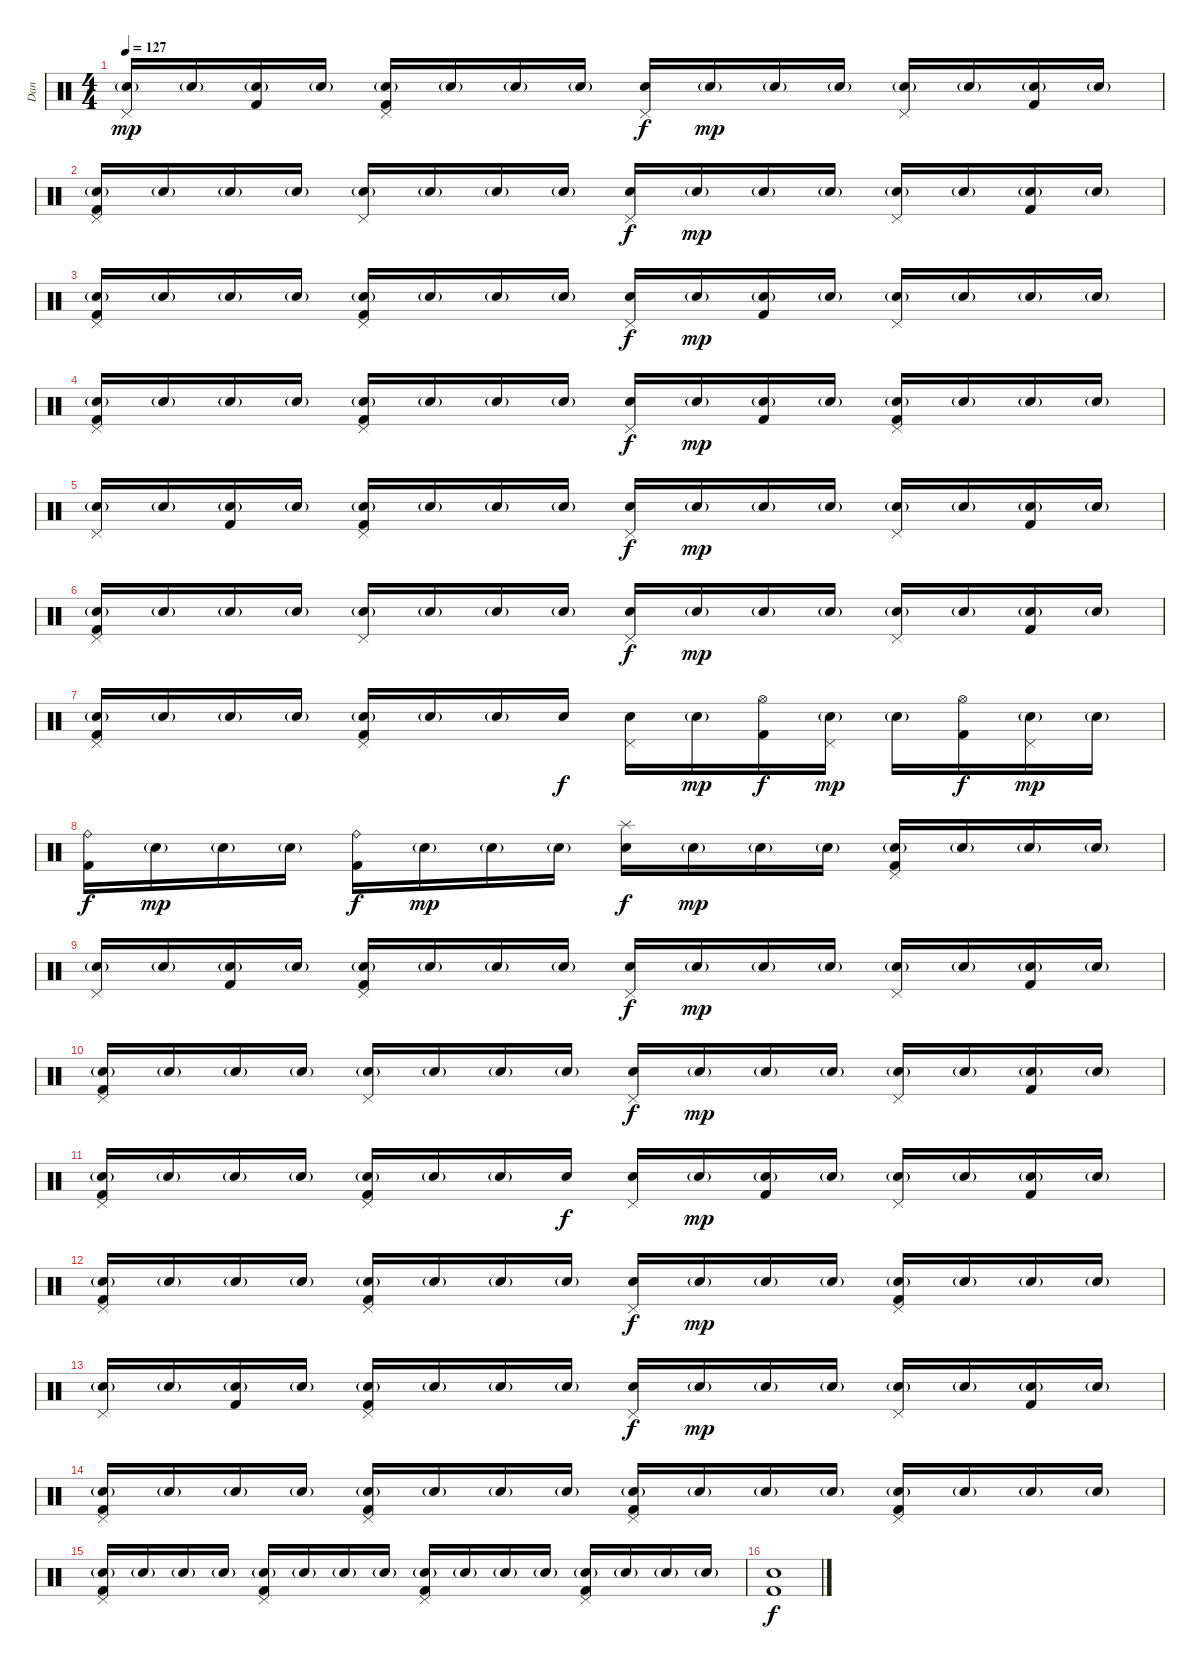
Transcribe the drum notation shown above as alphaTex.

\track ("Dan" "Dan") {instrument percussion}
\staff {score}
\articulation defaults
\ts (4 4)
\tempo 127
\clef neutral
\ks c
("Pedal Hi-Hat (hit)" "Electric Snare (hit)"{g}).16{dy mp} "Electric Snare (hit)"{g}.16 ("Electric Snare (hit)"{g} "Kick (hit) 2").16 "Electric Snare (hit)"{g}.16 ("Pedal Hi-Hat (hit)" "Electric Snare (hit)"{g} "Kick (hit) 2").16 "Electric Snare (hit)"{g}.16 "Electric Snare (hit)"{g}.16 "Electric Snare (hit)"{g}.16 ("Pedal Hi-Hat (hit)" "Electric Snare (hit)").16{dy f} "Electric Snare (hit)"{g}.16{dy mp} "Electric Snare (hit)"{g}.16 "Electric Snare (hit)"{g}.16 ("Pedal Hi-Hat (hit)" "Electric Snare (hit)"{g}).16 "Electric Snare (hit)"{g}.16 ("Electric Snare (hit)"{g} "Kick (hit) 2").16 "Electric Snare (hit)"{g}.16 |
("Pedal Hi-Hat (hit)" "Electric Snare (hit)"{g} "Kick (hit) 2").16 "Electric Snare (hit)"{g}.16 "Electric Snare (hit)"{g}.16 "Electric Snare (hit)"{g}.16 ("Pedal Hi-Hat (hit)" "Electric Snare (hit)"{g}).16 "Electric Snare (hit)"{g}.16 "Electric Snare (hit)"{g}.16 "Electric Snare (hit)"{g}.16 ("Pedal Hi-Hat (hit)" "Electric Snare (hit)").16{dy f} "Electric Snare (hit)"{g}.16{dy mp} "Electric Snare (hit)"{g}.16 "Electric Snare (hit)"{g}.16 ("Pedal Hi-Hat (hit)" "Electric Snare (hit)"{g}).16 "Electric Snare (hit)"{g}.16 ("Electric Snare (hit)"{g} "Kick (hit) 2").16 "Electric Snare (hit)"{g}.16 |
("Pedal Hi-Hat (hit)" "Electric Snare (hit)"{g} "Kick (hit) 2").16 "Electric Snare (hit)"{g}.16 "Electric Snare (hit)"{g}.16 "Electric Snare (hit)"{g}.16 ("Pedal Hi-Hat (hit)" "Electric Snare (hit)"{g} "Kick (hit) 2").16 "Electric Snare (hit)"{g}.16 "Electric Snare (hit)"{g}.16 "Electric Snare (hit)"{g}.16 ("Pedal Hi-Hat (hit)" "Electric Snare (hit)").16{dy f} "Electric Snare (hit)"{g}.16{dy mp} ("Electric Snare (hit)"{g} "Kick (hit) 2").16 "Electric Snare (hit)"{g}.16 ("Pedal Hi-Hat (hit)" "Electric Snare (hit)"{g}).16 "Electric Snare (hit)"{g}.16 "Electric Snare (hit)"{g}.16 "Electric Snare (hit)"{g}.16 |
("Pedal Hi-Hat (hit)" "Electric Snare (hit)"{g} "Kick (hit) 2").16 "Electric Snare (hit)"{g}.16 "Electric Snare (hit)"{g}.16 "Electric Snare (hit)"{g}.16 ("Pedal Hi-Hat (hit)" "Electric Snare (hit)"{g} "Kick (hit) 2").16 "Electric Snare (hit)"{g}.16 "Electric Snare (hit)"{g}.16 "Electric Snare (hit)"{g}.16 ("Pedal Hi-Hat (hit)" "Electric Snare (hit)").16{dy f} "Electric Snare (hit)"{g}.16{dy mp} ("Electric Snare (hit)"{g} "Kick (hit) 2").16 "Electric Snare (hit)"{g}.16 ("Pedal Hi-Hat (hit)" "Electric Snare (hit)"{g} "Kick (hit) 2").16 "Electric Snare (hit)"{g}.16 "Electric Snare (hit)"{g}.16 "Electric Snare (hit)"{g}.16 |
("Pedal Hi-Hat (hit)" "Electric Snare (hit)"{g}).16 "Electric Snare (hit)"{g}.16 ("Electric Snare (hit)"{g} "Kick (hit) 2").16 "Electric Snare (hit)"{g}.16 ("Pedal Hi-Hat (hit)" "Electric Snare (hit)"{g} "Kick (hit) 2").16 "Electric Snare (hit)"{g}.16 "Electric Snare (hit)"{g}.16 "Electric Snare (hit)"{g}.16 ("Pedal Hi-Hat (hit)" "Electric Snare (hit)").16{dy f} "Electric Snare (hit)"{g}.16{dy mp} "Electric Snare (hit)"{g}.16 "Electric Snare (hit)"{g}.16 ("Pedal Hi-Hat (hit)" "Electric Snare (hit)"{g}).16 "Electric Snare (hit)"{g}.16 ("Electric Snare (hit)"{g} "Kick (hit) 2").16 "Electric Snare (hit)"{g}.16 |
("Pedal Hi-Hat (hit)" "Electric Snare (hit)"{g} "Kick (hit) 2").16 "Electric Snare (hit)"{g}.16 "Electric Snare (hit)"{g}.16 "Electric Snare (hit)"{g}.16 ("Pedal Hi-Hat (hit)" "Electric Snare (hit)"{g}).16 "Electric Snare (hit)"{g}.16 "Electric Snare (hit)"{g}.16 "Electric Snare (hit)"{g}.16 ("Pedal Hi-Hat (hit)" "Electric Snare (hit)").16{dy f} "Electric Snare (hit)"{g}.16{dy mp} "Electric Snare (hit)"{g}.16 "Electric Snare (hit)"{g}.16 ("Pedal Hi-Hat (hit)" "Electric Snare (hit)"{g}).16 "Electric Snare (hit)"{g}.16 ("Electric Snare (hit)"{g} "Kick (hit) 2").16 "Electric Snare (hit)"{g}.16 |
("Pedal Hi-Hat (hit)" "Electric Snare (hit)"{g} "Kick (hit) 2").16 "Electric Snare (hit)"{g}.16 "Electric Snare (hit)"{g}.16 "Electric Snare (hit)"{g}.16 ("Pedal Hi-Hat (hit)" "Electric Snare (hit)"{g} "Kick (hit) 2").16 "Electric Snare (hit)"{g}.16 "Electric Snare (hit)"{g}.16 "Electric Snare (hit)".16{dy f} ("Pedal Hi-Hat (hit)" "Electric Snare (hit)").16 "Electric Snare (hit)"{g}.16{dy mp} ("Hi-Hat (open)" "Kick (hit) 2").16{dy f} ("Pedal Hi-Hat (hit)" "Electric Snare (hit)"{g}).16{dy mp} "Electric Snare (hit)"{g}.16 ("Hi-Hat (open)" "Kick (hit) 2").16{dy f} ("Pedal Hi-Hat (hit)" "Electric Snare (hit)"{g}).16{dy mp} "Electric Snare (hit)"{g}.16 |
("Ride (bell)" "Kick (hit) 2").16{dy f} "Electric Snare (hit)"{g}.16{dy mp} "Electric Snare (hit)"{g}.16 "Electric Snare (hit)"{g}.16 ("Ride (bell)" "Kick (hit) 2").16{dy f} "Electric Snare (hit)"{g}.16{dy mp} "Electric Snare (hit)"{g}.16 "Electric Snare (hit)"{g}.16 ("Splash (hit)" "Electric Snare (hit)").16{dy f} "Electric Snare (hit)"{g}.16{dy mp} "Electric Snare (hit)"{g}.16 "Electric Snare (hit)"{g}.16 ("Pedal Hi-Hat (hit)" "Electric Snare (hit)"{g} "Kick (hit) 2").16 "Electric Snare (hit)"{g}.16 "Electric Snare (hit)"{g}.16 "Electric Snare (hit)"{g}.16 |
("Pedal Hi-Hat (hit)" "Electric Snare (hit)"{g}).16 "Electric Snare (hit)"{g}.16 ("Electric Snare (hit)"{g} "Kick (hit) 2").16 "Electric Snare (hit)"{g}.16 ("Pedal Hi-Hat (hit)" "Electric Snare (hit)"{g} "Kick (hit) 2").16 "Electric Snare (hit)"{g}.16 "Electric Snare (hit)"{g}.16 "Electric Snare (hit)"{g}.16 ("Pedal Hi-Hat (hit)" "Electric Snare (hit)").16{dy f} "Electric Snare (hit)"{g}.16{dy mp} "Electric Snare (hit)"{g}.16 "Electric Snare (hit)"{g}.16 ("Pedal Hi-Hat (hit)" "Electric Snare (hit)"{g}).16 "Electric Snare (hit)"{g}.16 ("Electric Snare (hit)"{g} "Kick (hit) 2").16 "Electric Snare (hit)"{g}.16 |
("Pedal Hi-Hat (hit)" "Electric Snare (hit)"{g} "Kick (hit) 2").16 "Electric Snare (hit)"{g}.16 "Electric Snare (hit)"{g}.16 "Electric Snare (hit)"{g}.16 ("Pedal Hi-Hat (hit)" "Electric Snare (hit)"{g}).16 "Electric Snare (hit)"{g}.16 "Electric Snare (hit)"{g}.16 "Electric Snare (hit)"{g}.16 ("Pedal Hi-Hat (hit)" "Electric Snare (hit)").16{dy f} "Electric Snare (hit)"{g}.16{dy mp} "Electric Snare (hit)"{g}.16 "Electric Snare (hit)"{g}.16 ("Pedal Hi-Hat (hit)" "Electric Snare (hit)"{g}).16 "Electric Snare (hit)"{g}.16 ("Electric Snare (hit)"{g} "Kick (hit) 2").16 "Electric Snare (hit)"{g}.16 |
("Pedal Hi-Hat (hit)" "Electric Snare (hit)"{g} "Kick (hit) 2").16 "Electric Snare (hit)"{g}.16 "Electric Snare (hit)"{g}.16 "Electric Snare (hit)"{g}.16 ("Pedal Hi-Hat (hit)" "Electric Snare (hit)"{g} "Kick (hit) 2").16 "Electric Snare (hit)"{g}.16 "Electric Snare (hit)"{g}.16 "Electric Snare (hit)".16{dy f} ("Pedal Hi-Hat (hit)" "Electric Snare (hit)").16 "Electric Snare (hit)"{g}.16{dy mp} ("Electric Snare (hit)"{g} "Kick (hit) 2").16 "Electric Snare (hit)"{g}.16 ("Pedal Hi-Hat (hit)" "Electric Snare (hit)"{g}).16 "Electric Snare (hit)"{g}.16 ("Electric Snare (hit)"{g} "Kick (hit) 2").16 "Electric Snare (hit)"{g}.16 |
("Pedal Hi-Hat (hit)" "Electric Snare (hit)"{g} "Kick (hit) 2").16 "Electric Snare (hit)"{g}.16 "Electric Snare (hit)"{g}.16 "Electric Snare (hit)"{g}.16 ("Pedal Hi-Hat (hit)" "Electric Snare (hit)"{g} "Kick (hit) 2").16 "Electric Snare (hit)"{g}.16 "Electric Snare (hit)"{g}.16 "Electric Snare (hit)"{g}.16 ("Pedal Hi-Hat (hit)" "Electric Snare (hit)").16{dy f} "Electric Snare (hit)"{g}.16{dy mp} "Electric Snare (hit)"{g}.16 "Electric Snare (hit)"{g}.16 ("Pedal Hi-Hat (hit)" "Electric Snare (hit)"{g} "Kick (hit) 2").16 "Electric Snare (hit)"{g}.16 "Electric Snare (hit)"{g}.16 "Electric Snare (hit)"{g}.16 |
("Pedal Hi-Hat (hit)" "Electric Snare (hit)"{g}).16 "Electric Snare (hit)"{g}.16 ("Electric Snare (hit)"{g} "Kick (hit) 2").16 "Electric Snare (hit)"{g}.16 ("Pedal Hi-Hat (hit)" "Electric Snare (hit)"{g} "Kick (hit) 2").16 "Electric Snare (hit)"{g}.16 "Electric Snare (hit)"{g}.16 "Electric Snare (hit)"{g}.16 ("Pedal Hi-Hat (hit)" "Electric Snare (hit)").16{dy f} "Electric Snare (hit)"{g}.16{dy mp} "Electric Snare (hit)"{g}.16 "Electric Snare (hit)"{g}.16 ("Pedal Hi-Hat (hit)" "Electric Snare (hit)"{g}).16 "Electric Snare (hit)"{g}.16 ("Electric Snare (hit)"{g} "Kick (hit) 2").16 "Electric Snare (hit)"{g}.16 |
("Pedal Hi-Hat (hit)" "Electric Snare (hit)"{g} "Kick (hit) 2").16{volume 9} "Electric Snare (hit)"{g}.16{volume 16} "Electric Snare (hit)"{g}.16 "Electric Snare (hit)"{g}.16 ("Pedal Hi-Hat (hit)" "Electric Snare (hit)"{g} "Kick (hit) 2").16 "Electric Snare (hit)"{g}.16 "Electric Snare (hit)"{g}.16 "Electric Snare (hit)"{g}.16 ("Pedal Hi-Hat (hit)" "Electric Snare (hit)"{g} "Kick (hit) 2").16 "Electric Snare (hit)"{g}.16 "Electric Snare (hit)"{g}.16 "Electric Snare (hit)"{g}.16 ("Pedal Hi-Hat (hit)" "Electric Snare (hit)"{g} "Kick (hit) 2").16 "Electric Snare (hit)"{g}.16 "Electric Snare (hit)"{g}.16 "Electric Snare (hit)"{g}.16 |
("Pedal Hi-Hat (hit)" "Electric Snare (hit)"{g} "Kick (hit) 2").16 "Electric Snare (hit)"{g}.16 "Electric Snare (hit)"{g}.16 "Electric Snare (hit)"{g}.16 ("Pedal Hi-Hat (hit)" "Electric Snare (hit)"{g} "Kick (hit) 2").16 "Electric Snare (hit)"{g}.16 "Electric Snare (hit)"{g}.16 "Electric Snare (hit)"{g}.16 ("Pedal Hi-Hat (hit)" "Electric Snare (hit)"{g} "Kick (hit) 2").16 "Electric Snare (hit)"{g}.16 "Electric Snare (hit)"{g}.16 "Electric Snare (hit)"{g}.16 ("Pedal Hi-Hat (hit)" "Electric Snare (hit)"{g} "Kick (hit) 2").16 "Electric Snare (hit)"{g}.16 "Electric Snare (hit)"{g}.16 "Electric Snare (hit)"{g}.16 |
("Electric Snare (hit)" "Kick (hit) 2").1{dy f}
